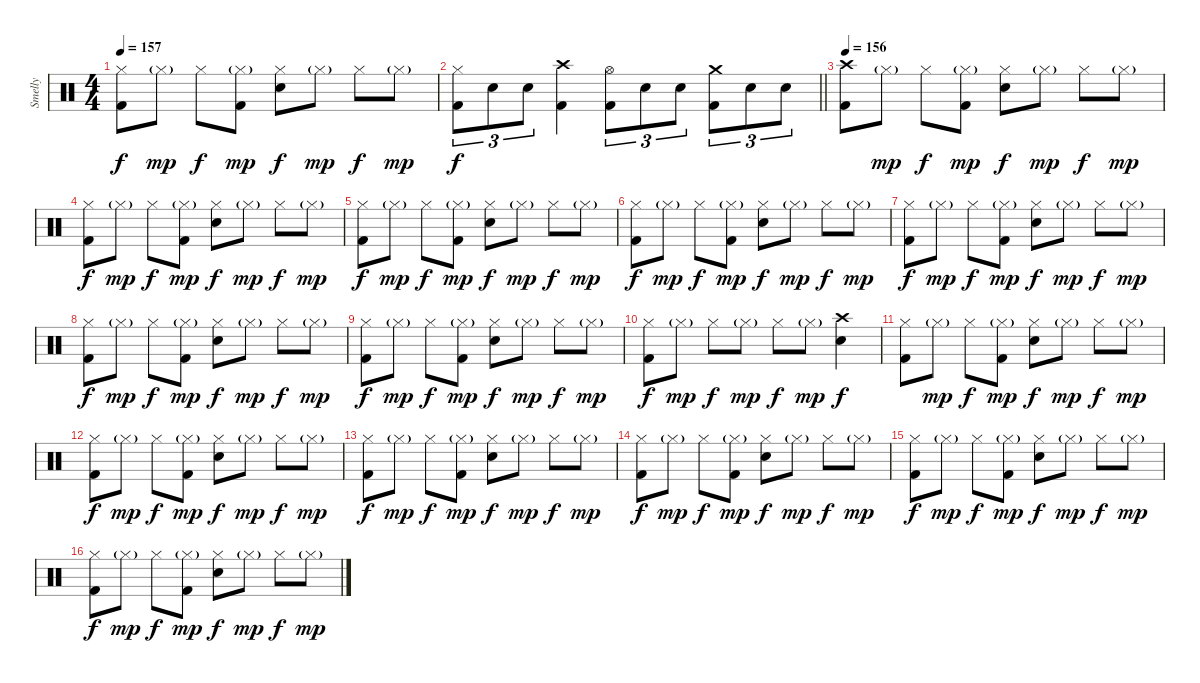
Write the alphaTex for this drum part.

\track ("Smelly" "Smelly") {instrument percussion}
\staff {score}
\articulation defaults
\ts (4 4)
\tempo 157
\clef neutral
\ks c
("Hi-Hat (closed)" "Kick (hit) 2").8{dy f} "Hi-Hat (closed)"{g}.8{dy mp} "Hi-Hat (closed)".8{dy f} ("Hi-Hat (closed)"{g} "Kick (hit) 2").8{dy mp} ("Hi-Hat (closed)" "Electric Snare (hit)").8{dy f} "Hi-Hat (closed)"{g}.8{dy mp} "Hi-Hat (closed)".8{dy f} "Hi-Hat (closed)"{g}.8{dy mp} |
\barLineRight lightlight
("Hi-Hat (closed)" "Kick (hit) 2").8{tu (3 2) dy f} "Electric Snare (hit)".8{tu (3 2)} "Electric Snare (hit)".8{tu (3 2)} ("Crash high (hit)" "Kick (hit) 2").4 ("Hi-Hat (open)" "Kick (hit) 2").8{tu (3 2)} "Electric Snare (hit)".8{tu (3 2)} "Electric Snare (hit)".8{tu (3 2)} ("Crash medium (hit)" "Kick (hit) 2").8{tu (3 2)} "Electric Snare (hit)".8{tu (3 2)} "Electric Snare (hit)".8{tu (3 2)} |
\section ("" "")
\tempo 156
("Crash high (hit)" "Kick (hit) 2").8 "Hi-Hat (closed)"{g}.8{dy mp} "Hi-Hat (closed)".8{dy f} ("Hi-Hat (closed)"{g} "Kick (hit) 2").8{dy mp} ("Hi-Hat (closed)" "Electric Snare (hit)").8{dy f} "Hi-Hat (closed)"{g}.8{dy mp} "Hi-Hat (closed)".8{dy f} "Hi-Hat (closed)"{g}.8{dy mp} |
("Hi-Hat (closed)" "Kick (hit) 2").8{dy f} "Hi-Hat (closed)"{g}.8{dy mp} "Hi-Hat (closed)".8{dy f} ("Hi-Hat (closed)"{g} "Kick (hit) 2").8{dy mp} ("Hi-Hat (closed)" "Electric Snare (hit)").8{dy f} "Hi-Hat (closed)"{g}.8{dy mp} "Hi-Hat (closed)".8{dy f} "Hi-Hat (closed)"{g}.8{dy mp} |
("Hi-Hat (closed)" "Kick (hit) 2").8{dy f} "Hi-Hat (closed)"{g}.8{dy mp} "Hi-Hat (closed)".8{dy f} ("Hi-Hat (closed)"{g} "Kick (hit) 2").8{dy mp} ("Hi-Hat (closed)" "Electric Snare (hit)").8{dy f} "Hi-Hat (closed)"{g}.8{dy mp} "Hi-Hat (closed)".8{dy f} "Hi-Hat (closed)"{g}.8{dy mp} |
("Hi-Hat (closed)" "Kick (hit) 2").8{dy f} "Hi-Hat (closed)"{g}.8{dy mp} "Hi-Hat (closed)".8{dy f} ("Hi-Hat (closed)"{g} "Kick (hit) 2").8{dy mp} ("Hi-Hat (closed)" "Electric Snare (hit)").8{dy f} "Hi-Hat (closed)"{g}.8{dy mp} "Hi-Hat (closed)".8{dy f} "Hi-Hat (closed)"{g}.8{dy mp} |
("Hi-Hat (closed)" "Kick (hit) 2").8{dy f} "Hi-Hat (closed)"{g}.8{dy mp} "Hi-Hat (closed)".8{dy f} ("Hi-Hat (closed)"{g} "Kick (hit) 2").8{dy mp} ("Hi-Hat (closed)" "Electric Snare (hit)").8{dy f} "Hi-Hat (closed)"{g}.8{dy mp} "Hi-Hat (closed)".8{dy f} "Hi-Hat (closed)"{g}.8{dy mp} |
("Hi-Hat (closed)" "Kick (hit) 2").8{dy f} "Hi-Hat (closed)"{g}.8{dy mp} "Hi-Hat (closed)".8{dy f} ("Hi-Hat (closed)"{g} "Kick (hit) 2").8{dy mp} ("Hi-Hat (closed)" "Electric Snare (hit)").8{dy f} "Hi-Hat (closed)"{g}.8{dy mp} "Hi-Hat (closed)".8{dy f} "Hi-Hat (closed)"{g}.8{dy mp} |
("Hi-Hat (closed)" "Kick (hit) 2").8{dy f} "Hi-Hat (closed)"{g}.8{dy mp} "Hi-Hat (closed)".8{dy f} ("Hi-Hat (closed)"{g} "Kick (hit) 2").8{dy mp} ("Hi-Hat (closed)" "Electric Snare (hit)").8{dy f} "Hi-Hat (closed)"{g}.8{dy mp} "Hi-Hat (closed)".8{dy f} "Hi-Hat (closed)"{g}.8{dy mp} |
("Hi-Hat (closed)" "Kick (hit) 2").8{dy f} "Hi-Hat (closed)"{g}.8{dy mp} "Hi-Hat (closed)".8{dy f} "Hi-Hat (closed)"{g}.8{dy mp} "Hi-Hat (closed)".8{dy f} "Hi-Hat (closed)"{g}.8{dy mp} ("Crash high (hit)" "Electric Snare (hit)").4{dy f} |
("Hi-Hat (closed)" "Kick (hit) 2").8 "Hi-Hat (closed)"{g}.8{dy mp} "Hi-Hat (closed)".8{dy f} ("Hi-Hat (closed)"{g} "Kick (hit) 2").8{dy mp} ("Hi-Hat (closed)" "Electric Snare (hit)").8{dy f} "Hi-Hat (closed)"{g}.8{dy mp} "Hi-Hat (closed)".8{dy f} "Hi-Hat (closed)"{g}.8{dy mp} |
("Hi-Hat (closed)" "Kick (hit) 2").8{dy f} "Hi-Hat (closed)"{g}.8{dy mp} "Hi-Hat (closed)".8{dy f} ("Hi-Hat (closed)"{g} "Kick (hit) 2").8{dy mp} ("Hi-Hat (closed)" "Electric Snare (hit)").8{dy f} "Hi-Hat (closed)"{g}.8{dy mp} "Hi-Hat (closed)".8{dy f} "Hi-Hat (closed)"{g}.8{dy mp} |
("Hi-Hat (closed)" "Kick (hit) 2").8{dy f} "Hi-Hat (closed)"{g}.8{dy mp} "Hi-Hat (closed)".8{dy f} ("Hi-Hat (closed)"{g} "Kick (hit) 2").8{dy mp} ("Hi-Hat (closed)" "Electric Snare (hit)").8{dy f} "Hi-Hat (closed)"{g}.8{dy mp} "Hi-Hat (closed)".8{dy f} "Hi-Hat (closed)"{g}.8{dy mp} |
("Hi-Hat (closed)" "Kick (hit) 2").8{dy f} "Hi-Hat (closed)"{g}.8{dy mp} "Hi-Hat (closed)".8{dy f} ("Hi-Hat (closed)"{g} "Kick (hit) 2").8{dy mp} ("Hi-Hat (closed)" "Electric Snare (hit)").8{dy f} "Hi-Hat (closed)"{g}.8{dy mp} "Hi-Hat (closed)".8{dy f} "Hi-Hat (closed)"{g}.8{dy mp} |
("Hi-Hat (closed)" "Kick (hit) 2").8{dy f} "Hi-Hat (closed)"{g}.8{dy mp} "Hi-Hat (closed)".8{dy f} ("Hi-Hat (closed)"{g} "Kick (hit) 2").8{dy mp} ("Hi-Hat (closed)" "Electric Snare (hit)").8{dy f} "Hi-Hat (closed)"{g}.8{dy mp} "Hi-Hat (closed)".8{dy f} "Hi-Hat (closed)"{g}.8{dy mp} |
("Hi-Hat (closed)" "Kick (hit) 2").8{dy f} "Hi-Hat (closed)"{g}.8{dy mp} "Hi-Hat (closed)".8{dy f} ("Hi-Hat (closed)"{g} "Kick (hit) 2").8{dy mp} ("Hi-Hat (closed)" "Electric Snare (hit)").8{dy f} "Hi-Hat (closed)"{g}.8{dy mp} "Hi-Hat (closed)".8{dy f} "Hi-Hat (closed)"{g}.8{dy mp}
